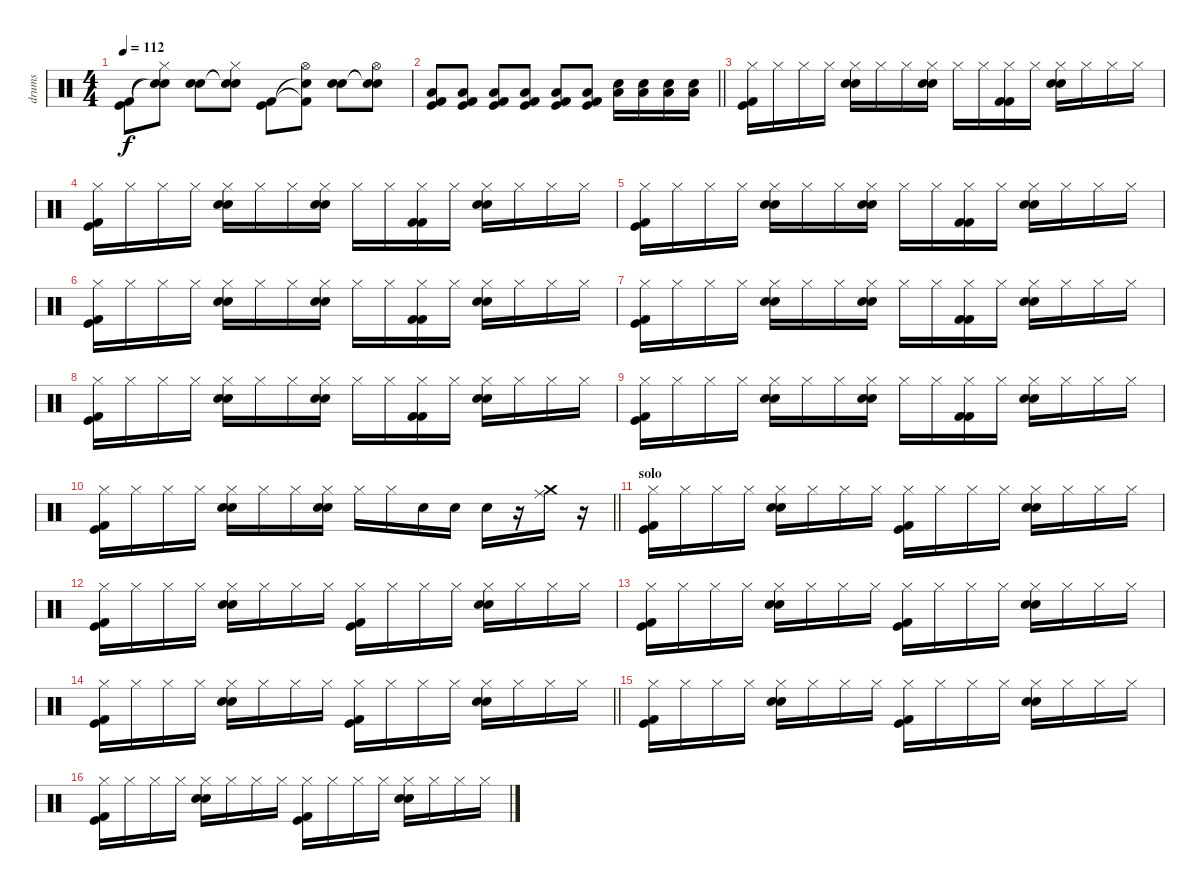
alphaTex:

\track ("drums" "drums") {instrument percussion}
\staff {score}
\articulation defaults
\ts (4 4)
\tempo 112
\clef neutral
\ks c
("Kick (hit)" "Kick (hit) 2").8{dy f} ("Snare (hit)"{t} "Snare (hit)"{t} "Hi-Hat (closed)").8 ("Electric Snare (hit)" "Snare (hit) 2").8 ("Snare (hit)"{t} "Snare (hit)"{t} "Hi-Hat (closed)").8 ("Kick (hit)" "Kick (hit) 2").8 ("Snare (hit)"{t} "Kick (hit) 2"{t} "Hi-Hat (open)").8 ("Electric Snare (hit)" "Snare (hit) 2").8 ("Snare (hit)"{t} "Snare (hit)"{t} "Hi-Hat (open)").8 |
\barLineRight lightlight
("Kick (hit)" "Kick (hit) 2" "Low Floor Tom (hit)").8 ("Kick (hit)" "Kick (hit) 2" "Low Floor Tom (hit)").8 ("Kick (hit)" "Kick (hit) 2" "Low Floor Tom (hit)").8 ("Kick (hit)" "Kick (hit) 2" "Low Floor Tom (hit)").8 ("Kick (hit)" "Kick (hit) 2" "Low Floor Tom (hit)").8 ("Kick (hit)" "Kick (hit) 2" "Low Floor Tom (hit)").8 ("Snare (hit) 2" "Low Floor Tom (hit)").16 ("Snare (hit) 2" "Low Floor Tom (hit)").16 ("Snare (hit) 2" "Low Floor Tom (hit)").16 ("Snare (hit) 2" "Low Floor Tom (hit)").16 |
("Hi-Hat (closed)" "Kick (hit) 2" "Kick (hit)").16 "Hi-Hat (closed)".16 "Hi-Hat (closed)".16 "Hi-Hat (closed)".16 ("Hi-Hat (closed)" "Snare (hit) 2" "Electric Snare (hit)").16 "Hi-Hat (closed)".16 "Hi-Hat (closed)".16 ("Hi-Hat (closed)" "Snare (hit) 2" "Electric Snare (hit)").16 "Hi-Hat (closed)".16 "Hi-Hat (closed)".16 ("Hi-Hat (closed)" "Kick (hit) 2" "Kick (hit) 2").16 "Hi-Hat (closed)".16 ("Hi-Hat (closed)" "Snare (hit) 2" "Electric Snare (hit)").16 "Hi-Hat (closed)".16 "Hi-Hat (closed)".16 "Hi-Hat (closed)".16 |
("Hi-Hat (closed)" "Kick (hit) 2" "Kick (hit)").16 "Hi-Hat (closed)".16 "Hi-Hat (closed)".16 "Hi-Hat (closed)".16 ("Hi-Hat (closed)" "Snare (hit) 2" "Electric Snare (hit)").16 "Hi-Hat (closed)".16 "Hi-Hat (closed)".16 ("Hi-Hat (closed)" "Snare (hit) 2" "Electric Snare (hit)").16 "Hi-Hat (closed)".16 "Hi-Hat (closed)".16 ("Hi-Hat (closed)" "Kick (hit) 2" "Kick (hit) 2").16 "Hi-Hat (closed)".16 ("Hi-Hat (closed)" "Snare (hit) 2" "Electric Snare (hit)").16 "Hi-Hat (closed)".16 "Hi-Hat (closed)".16 "Hi-Hat (closed)".16 |
("Hi-Hat (closed)" "Kick (hit) 2" "Kick (hit)").16 "Hi-Hat (closed)".16 "Hi-Hat (closed)".16 "Hi-Hat (closed)".16 ("Hi-Hat (closed)" "Snare (hit) 2" "Electric Snare (hit)").16 "Hi-Hat (closed)".16 "Hi-Hat (closed)".16 ("Hi-Hat (closed)" "Snare (hit) 2" "Electric Snare (hit)").16 "Hi-Hat (closed)".16 "Hi-Hat (closed)".16 ("Hi-Hat (closed)" "Kick (hit) 2" "Kick (hit) 2").16 "Hi-Hat (closed)".16 ("Hi-Hat (closed)" "Snare (hit) 2" "Electric Snare (hit)").16 "Hi-Hat (closed)".16 "Hi-Hat (closed)".16 "Hi-Hat (closed)".16 |
("Hi-Hat (closed)" "Kick (hit) 2" "Kick (hit)").16 "Hi-Hat (closed)".16 "Hi-Hat (closed)".16 "Hi-Hat (closed)".16 ("Hi-Hat (closed)" "Snare (hit) 2" "Electric Snare (hit)").16 "Hi-Hat (closed)".16 "Hi-Hat (closed)".16 ("Hi-Hat (closed)" "Snare (hit) 2" "Electric Snare (hit)").16 "Hi-Hat (closed)".16 "Hi-Hat (closed)".16 ("Hi-Hat (closed)" "Kick (hit) 2" "Kick (hit) 2").16 "Hi-Hat (closed)".16 ("Hi-Hat (closed)" "Snare (hit) 2" "Electric Snare (hit)").16 "Hi-Hat (closed)".16 "Hi-Hat (closed)".16 "Hi-Hat (closed)".16 |
("Hi-Hat (closed)" "Kick (hit) 2" "Kick (hit)").16 "Hi-Hat (closed)".16 "Hi-Hat (closed)".16 "Hi-Hat (closed)".16 ("Hi-Hat (closed)" "Snare (hit) 2" "Electric Snare (hit)").16 "Hi-Hat (closed)".16 "Hi-Hat (closed)".16 ("Hi-Hat (closed)" "Snare (hit) 2" "Electric Snare (hit)").16 "Hi-Hat (closed)".16 "Hi-Hat (closed)".16 ("Hi-Hat (closed)" "Kick (hit) 2" "Kick (hit) 2").16 "Hi-Hat (closed)".16 ("Hi-Hat (closed)" "Snare (hit) 2" "Electric Snare (hit)").16 "Hi-Hat (closed)".16 "Hi-Hat (closed)".16 "Hi-Hat (closed)".16 |
("Hi-Hat (closed)" "Kick (hit) 2" "Kick (hit)").16 "Hi-Hat (closed)".16 "Hi-Hat (closed)".16 "Hi-Hat (closed)".16 ("Hi-Hat (closed)" "Snare (hit) 2" "Electric Snare (hit)").16 "Hi-Hat (closed)".16 "Hi-Hat (closed)".16 ("Hi-Hat (closed)" "Snare (hit) 2" "Electric Snare (hit)").16 "Hi-Hat (closed)".16 "Hi-Hat (closed)".16 ("Hi-Hat (closed)" "Kick (hit) 2" "Kick (hit) 2").16 "Hi-Hat (closed)".16 ("Hi-Hat (closed)" "Snare (hit) 2" "Electric Snare (hit)").16 "Hi-Hat (closed)".16 "Hi-Hat (closed)".16 "Hi-Hat (closed)".16 |
("Hi-Hat (closed)" "Kick (hit) 2" "Kick (hit)").16 "Hi-Hat (closed)".16 "Hi-Hat (closed)".16 "Hi-Hat (closed)".16 ("Hi-Hat (closed)" "Snare (hit) 2" "Electric Snare (hit)").16 "Hi-Hat (closed)".16 "Hi-Hat (closed)".16 ("Hi-Hat (closed)" "Snare (hit) 2" "Electric Snare (hit)").16 "Hi-Hat (closed)".16 "Hi-Hat (closed)".16 ("Hi-Hat (closed)" "Kick (hit) 2" "Kick (hit) 2").16 "Hi-Hat (closed)".16 ("Hi-Hat (closed)" "Snare (hit) 2" "Electric Snare (hit)").16 "Hi-Hat (closed)".16 "Hi-Hat (closed)".16 "Hi-Hat (closed)".16 |
\barLineRight lightlight
("Hi-Hat (closed)" "Kick (hit) 2" "Kick (hit)").16 "Hi-Hat (closed)".16 "Hi-Hat (closed)".16 "Hi-Hat (closed)".16 ("Hi-Hat (closed)" "Snare (hit) 2" "Electric Snare (hit)").16 "Hi-Hat (closed)".16 "Hi-Hat (closed)".16 ("Hi-Hat (closed)" "Snare (hit) 2" "Electric Snare (hit)").16 "Hi-Hat (closed)".16 "Hi-Hat (closed)".16 "Snare (hit) 2".16 "Snare (hit) 2".16 "Snare (hit) 2".16 r.16 ("Ride (middle)" "Crash medium (hit)").16 r.16 |
\section ("" "solo")
("Hi-Hat (closed)" "Kick (hit) 2" "Kick (hit)").16 "Hi-Hat (closed)".16 "Hi-Hat (closed)".16 "Hi-Hat (closed)".16 ("Hi-Hat (closed)" "Snare (hit) 2" "Electric Snare (hit)").16 "Hi-Hat (closed)".16 "Hi-Hat (closed)".16 "Hi-Hat (closed)".16 ("Hi-Hat (closed)" "Kick (hit) 2" "Kick (hit)").16 "Hi-Hat (closed)".16 "Hi-Hat (closed)".16 "Hi-Hat (closed)".16 ("Hi-Hat (closed)" "Snare (hit) 2" "Electric Snare (hit)").16 "Hi-Hat (closed)".16 "Hi-Hat (closed)".16 "Hi-Hat (closed)".16 |
("Hi-Hat (closed)" "Kick (hit) 2" "Kick (hit)").16 "Hi-Hat (closed)".16 "Hi-Hat (closed)".16 "Hi-Hat (closed)".16 ("Hi-Hat (closed)" "Snare (hit) 2" "Electric Snare (hit)").16 "Hi-Hat (closed)".16 "Hi-Hat (closed)".16 "Hi-Hat (closed)".16 ("Hi-Hat (closed)" "Kick (hit) 2" "Kick (hit)").16 "Hi-Hat (closed)".16 "Hi-Hat (closed)".16 "Hi-Hat (closed)".16 ("Hi-Hat (closed)" "Snare (hit) 2" "Electric Snare (hit)").16 "Hi-Hat (closed)".16 "Hi-Hat (closed)".16 "Hi-Hat (closed)".16 |
("Hi-Hat (closed)" "Kick (hit) 2" "Kick (hit)").16 "Hi-Hat (closed)".16 "Hi-Hat (closed)".16 "Hi-Hat (closed)".16 ("Hi-Hat (closed)" "Snare (hit) 2" "Electric Snare (hit)").16 "Hi-Hat (closed)".16 "Hi-Hat (closed)".16 "Hi-Hat (closed)".16 ("Hi-Hat (closed)" "Kick (hit) 2" "Kick (hit)").16 "Hi-Hat (closed)".16 "Hi-Hat (closed)".16 "Hi-Hat (closed)".16 ("Hi-Hat (closed)" "Snare (hit) 2" "Electric Snare (hit)").16 "Hi-Hat (closed)".16 "Hi-Hat (closed)".16 "Hi-Hat (closed)".16 |
\barLineRight lightlight
("Hi-Hat (closed)" "Kick (hit) 2" "Kick (hit)").16 "Hi-Hat (closed)".16 "Hi-Hat (closed)".16 "Hi-Hat (closed)".16 ("Hi-Hat (closed)" "Snare (hit) 2" "Electric Snare (hit)").16 "Hi-Hat (closed)".16 "Hi-Hat (closed)".16 "Hi-Hat (closed)".16 ("Hi-Hat (closed)" "Kick (hit) 2" "Kick (hit)").16 "Hi-Hat (closed)".16 "Hi-Hat (closed)".16 "Hi-Hat (closed)".16 ("Hi-Hat (closed)" "Snare (hit) 2" "Electric Snare (hit)").16 "Hi-Hat (closed)".16 "Hi-Hat (closed)".16 "Hi-Hat (closed)".16 |
("Hi-Hat (closed)" "Kick (hit) 2" "Kick (hit)").16 "Hi-Hat (closed)".16 "Hi-Hat (closed)".16 "Hi-Hat (closed)".16 ("Hi-Hat (closed)" "Snare (hit) 2" "Electric Snare (hit)").16 "Hi-Hat (closed)".16 "Hi-Hat (closed)".16 "Hi-Hat (closed)".16 ("Hi-Hat (closed)" "Kick (hit) 2" "Kick (hit)").16 "Hi-Hat (closed)".16 "Hi-Hat (closed)".16 "Hi-Hat (closed)".16 ("Hi-Hat (closed)" "Snare (hit) 2" "Electric Snare (hit)").16 "Hi-Hat (closed)".16 "Hi-Hat (closed)".16 "Hi-Hat (closed)".16 |
("Hi-Hat (closed)" "Kick (hit) 2" "Kick (hit)").16 "Hi-Hat (closed)".16 "Hi-Hat (closed)".16 "Hi-Hat (closed)".16 ("Hi-Hat (closed)" "Snare (hit) 2" "Electric Snare (hit)").16 "Hi-Hat (closed)".16 "Hi-Hat (closed)".16 "Hi-Hat (closed)".16 ("Hi-Hat (closed)" "Kick (hit) 2" "Kick (hit)").16 "Hi-Hat (closed)".16 "Hi-Hat (closed)".16 "Hi-Hat (closed)".16 ("Hi-Hat (closed)" "Snare (hit) 2" "Electric Snare (hit)").16 "Hi-Hat (closed)".16 "Hi-Hat (closed)".16 "Hi-Hat (closed)".16
